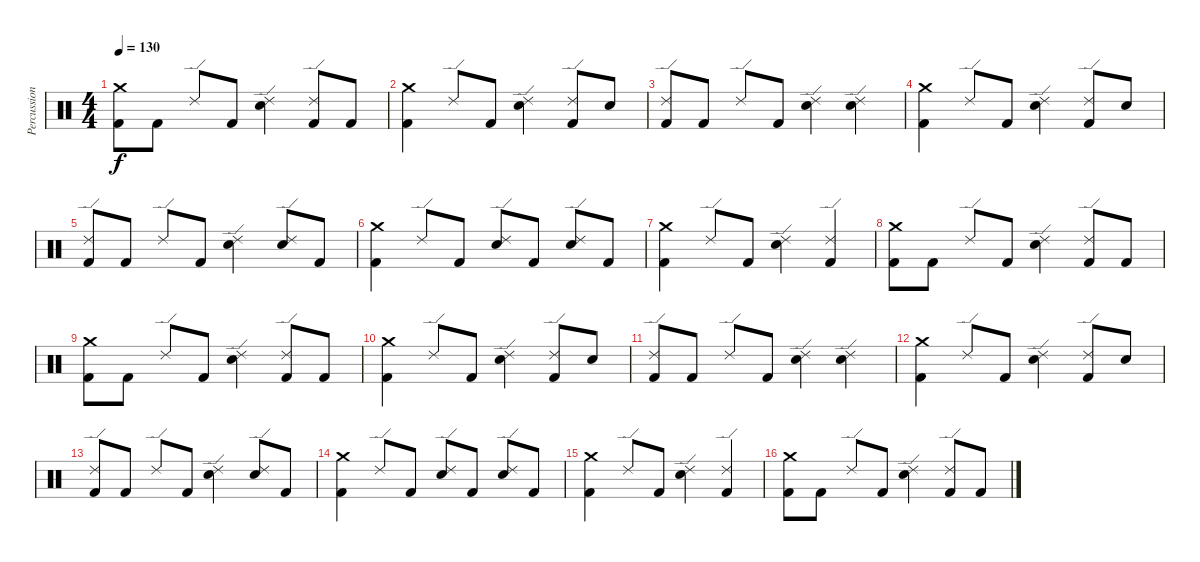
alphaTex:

\track ("Percussion" "Percussion") {instrument percussion}
\staff {score}
\articulation defaults
\ts (4 4)
\tempo 130
\clef neutral
\ks c
("Crash medium (hit)" "Kick (hit) 2").8{dy f} "Kick (hit) 2".8 "Ride (edge) 2".8 "Kick (hit) 2".8 ("Ride (edge) 2" "Electric Snare (hit)").4 ("Ride (edge) 2" "Kick (hit) 2").8 "Kick (hit) 2".8 |
("Crash medium (hit)" "Kick (hit) 2").4 "Ride (edge) 2".8 "Kick (hit) 2".8 ("Ride (edge) 2" "Electric Snare (hit)").4 ("Kick (hit) 2" "Ride (edge) 2").8 "Electric Snare (hit)".8 |
("Kick (hit) 2" "Ride (edge) 2").8 "Kick (hit) 2".8 "Ride (edge) 2".8 "Kick (hit) 2".8 ("Electric Snare (hit)" "Ride (edge) 2").4 ("Electric Snare (hit)" "Ride (edge) 2").4 |
("Crash medium (hit)" "Kick (hit) 2").4 "Ride (edge) 2".8 "Kick (hit) 2".8 ("Ride (edge) 2" "Electric Snare (hit)").4 ("Kick (hit) 2" "Ride (edge) 2").8 "Electric Snare (hit)".8 |
("Kick (hit) 2" "Ride (edge) 2").8 "Kick (hit) 2".8 "Ride (edge) 2".8 "Kick (hit) 2".8 ("Electric Snare (hit)" "Ride (edge) 2").4 ("Electric Snare (hit)" "Ride (edge) 2").8 "Kick (hit) 2".8 |
("Crash medium (hit)" "Kick (hit) 2").4 "Ride (edge) 2".8 "Kick (hit) 2".8 ("Ride (edge) 2" "Electric Snare (hit)").8 "Kick (hit) 2".8 ("Ride (edge) 2" "Electric Snare (hit)").8 "Kick (hit) 2".8 |
("Crash medium (hit)" "Kick (hit) 2").4 "Ride (edge) 2".8 "Kick (hit) 2".8 ("Ride (edge) 2" "Electric Snare (hit)").4 ("Ride (edge) 2" "Kick (hit) 2").4 |
("Crash medium (hit)" "Kick (hit) 2").8 "Kick (hit) 2".8 "Ride (edge) 2".8 "Kick (hit) 2".8 ("Ride (edge) 2" "Electric Snare (hit)").4 ("Ride (edge) 2" "Kick (hit) 2").8 "Kick (hit) 2".8 |
("Crash medium (hit)" "Kick (hit) 2").8 "Kick (hit) 2".8 "Ride (edge) 2".8 "Kick (hit) 2".8 ("Ride (edge) 2" "Electric Snare (hit)").4 ("Ride (edge) 2" "Kick (hit) 2").8 "Kick (hit) 2".8 |
("Crash medium (hit)" "Kick (hit) 2").4 "Ride (edge) 2".8 "Kick (hit) 2".8 ("Ride (edge) 2" "Electric Snare (hit)").4 ("Kick (hit) 2" "Ride (edge) 2").8 "Electric Snare (hit)".8 |
("Kick (hit) 2" "Ride (edge) 2").8 "Kick (hit) 2".8 "Ride (edge) 2".8 "Kick (hit) 2".8 ("Electric Snare (hit)" "Ride (edge) 2").4 ("Electric Snare (hit)" "Ride (edge) 2").4 |
("Crash medium (hit)" "Kick (hit) 2").4 "Ride (edge) 2".8 "Kick (hit) 2".8 ("Ride (edge) 2" "Electric Snare (hit)").4 ("Kick (hit) 2" "Ride (edge) 2").8 "Electric Snare (hit)".8 |
("Kick (hit) 2" "Ride (edge) 2").8 "Kick (hit) 2".8 "Ride (edge) 2".8 "Kick (hit) 2".8 ("Electric Snare (hit)" "Ride (edge) 2").4 ("Electric Snare (hit)" "Ride (edge) 2").8 "Kick (hit) 2".8 |
("Crash medium (hit)" "Kick (hit) 2").4 "Ride (edge) 2".8 "Kick (hit) 2".8 ("Ride (edge) 2" "Electric Snare (hit)").8 "Kick (hit) 2".8 ("Ride (edge) 2" "Electric Snare (hit)").8 "Kick (hit) 2".8 |
("Crash medium (hit)" "Kick (hit) 2").4 "Ride (edge) 2".8 "Kick (hit) 2".8 ("Ride (edge) 2" "Electric Snare (hit)").4 ("Ride (edge) 2" "Kick (hit) 2").4 |
("Crash medium (hit)" "Kick (hit) 2").8 "Kick (hit) 2".8 "Ride (edge) 2".8 "Kick (hit) 2".8 ("Ride (edge) 2" "Electric Snare (hit)").4 ("Ride (edge) 2" "Kick (hit) 2").8 "Kick (hit) 2".8
